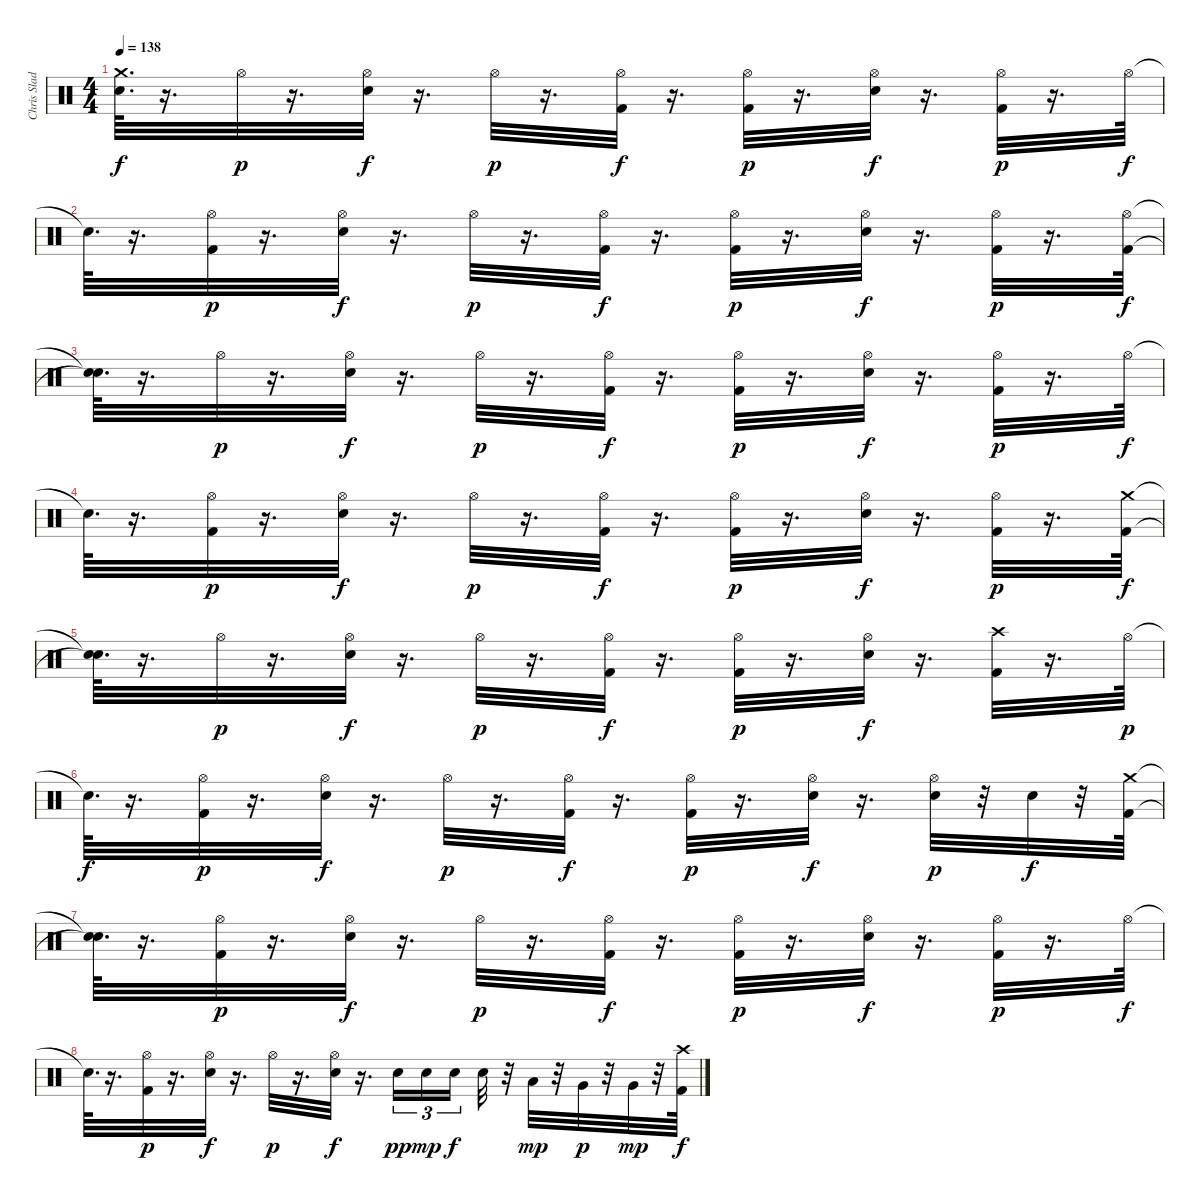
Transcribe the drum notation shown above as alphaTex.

\track ("Chris Slade" "Chris Slad") {instrument percussion}
\staff {score}
\articulation defaults
\ts (4 4)
\tempo 138
\clef neutral
\ks c
("Crash medium (hit)" "Snare (hit)"{t}).64{d dy f} r.16{d} "Hi-Hat (open)".32{dy p} r.16{d} ("Hi-Hat (open)" "Electric Snare (hit)").32{dy f} r.16{d} "Hi-Hat (open)".32{dy p} r.16{d} ("Hi-Hat (open)" "Kick (hit) 2").32{dy f} r.16{d} ("Kick (hit) 2" "Hi-Hat (open)").32{dy p} r.16{d} ("Hi-Hat (open)" "Electric Snare (hit)").32{dy f} r.16{d} ("Kick (hit) 2" "Hi-Hat (open)").32{dy p} r.16{d} "Hi-Hat (open)".64{dy f} |
"Snare (hit)"{t}.64{d} r.16{d} ("Kick (hit) 2" "Hi-Hat (open)").32{dy p} r.16{d} ("Hi-Hat (open)" "Electric Snare (hit)").32{dy f} r.16{d} "Hi-Hat (open)".32{dy p} r.16{d} ("Hi-Hat (open)" "Kick (hit) 2").32{dy f} r.16{d} ("Kick (hit) 2" "Hi-Hat (open)").32{dy p} r.16{d} ("Hi-Hat (open)" "Electric Snare (hit)").32{dy f} r.16{d} ("Kick (hit) 2" "Hi-Hat (open)").32{dy p} r.16{d} ("Hi-Hat (open)" "Kick (hit) 2").64{dy f} |
("Snare (hit)"{t} "Snare (hit)"{t}).64{d} r.16{d} "Hi-Hat (open)".32{dy p} r.16{d} ("Hi-Hat (open)" "Electric Snare (hit)").32{dy f} r.16{d} "Hi-Hat (open)".32{dy p} r.16{d} ("Hi-Hat (open)" "Kick (hit) 2").32{dy f} r.16{d} ("Kick (hit) 2" "Hi-Hat (open)").32{dy p} r.16{d} ("Hi-Hat (open)" "Electric Snare (hit)").32{dy f} r.16{d} ("Kick (hit) 2" "Hi-Hat (open)").32{dy p} r.16{d} "Hi-Hat (open)".64{dy f} |
"Snare (hit)"{t}.64{d} r.16{d} ("Kick (hit) 2" "Hi-Hat (open)").32{dy p} r.16{d} ("Hi-Hat (open)" "Electric Snare (hit)").32{dy f} r.16{d} "Hi-Hat (open)".32{dy p} r.16{d} ("Hi-Hat (open)" "Kick (hit) 2").32{dy f} r.16{d} ("Kick (hit) 2" "Hi-Hat (open)").32{dy p} r.16{d} ("Hi-Hat (open)" "Electric Snare (hit)").32{dy f} r.16{d} ("Kick (hit) 2" "Hi-Hat (open)").32{dy p} r.16{d} ("Crash medium (hit)" "Kick (hit) 2").64{dy f} |
("Snare (hit)"{t} "Snare (hit)"{t}).64{d} r.16{d} "Hi-Hat (open)".32{dy p} r.16{d} ("Hi-Hat (open)" "Electric Snare (hit)").32{dy f} r.16{d} "Hi-Hat (open)".32{dy p} r.16{d} ("Hi-Hat (open)" "Kick (hit) 2").32{dy f} r.16{d} ("Hi-Hat (open)" "Kick (hit) 2").32{dy p} r.16{d} ("Hi-Hat (open)" "Electric Snare (hit)").32{dy f} r.16{d} ("Crash high (hit)" "Kick (hit) 2").32 r.16{d} "Hi-Hat (open)".64{dy p} |
"Snare (hit)"{t}.64{d dy f} r.16{d} ("Kick (hit) 2" "Hi-Hat (open)").32{dy p} r.16{d} ("Hi-Hat (open)" "Electric Snare (hit)").32{dy f} r.16{d} "Hi-Hat (open)".32{dy p} r.16{d} ("Hi-Hat (open)" "Kick (hit) 2").32{dy f} r.16{d} ("Kick (hit) 2" "Hi-Hat (open)").32{dy p} r.16{d} ("Hi-Hat (open)" "Electric Snare (hit)").32{dy f} r.16{d} ("Electric Snare (hit)" "Hi-Hat (open)").32{dy p} r.32 "Electric Snare (hit)".32{dy f} r.32 ("Crash medium (hit)" "Kick (hit) 2").64 |
("Snare (hit)"{t} "Snare (hit)"{t}).64{d} r.16{d} ("Kick (hit) 2" "Hi-Hat (open)").32{dy p} r.16{d} ("Hi-Hat (open)" "Electric Snare (hit)").32{dy f} r.16{d} "Hi-Hat (open)".32{dy p} r.16{d} ("Hi-Hat (open)" "Kick (hit) 2").32{dy f} r.16{d} ("Kick (hit) 2" "Hi-Hat (open)").32{dy p} r.16{d} ("Hi-Hat (open)" "Electric Snare (hit)").32{dy f} r.16{d} ("Kick (hit) 2" "Hi-Hat (open)").32{dy p} r.16{d} "Hi-Hat (open)".64{dy f} |
"Snare (hit)"{t}.64{d} r.16{d} ("Kick (hit) 2" "Hi-Hat (open)").32{dy p} r.16{d} ("Hi-Hat (open)" "Electric Snare (hit)").32{dy f} r.16{d} "Hi-Hat (open)".32{dy p} r.16{d} ("Electric Snare (hit)" "Hi-Hat (open)").32{dy f} r.16{d} "Electric Snare (hit)".16{tu (3 2) dy pp} "Electric Snare (hit)".16{tu (3 2) dy mp} "Electric Snare (hit)".16{tu (3 2) dy f beam splitsecondary} "Electric Snare (hit)".32 r.32 "Low Tom (hit)".32{dy mp} r.32 "Very Low Tom (hit)".32{dy p} r.32 "Very Low Tom (hit)".32{dy mp} r.32 ("Crash high (hit)" "Kick (hit) 2").64{dy f}
